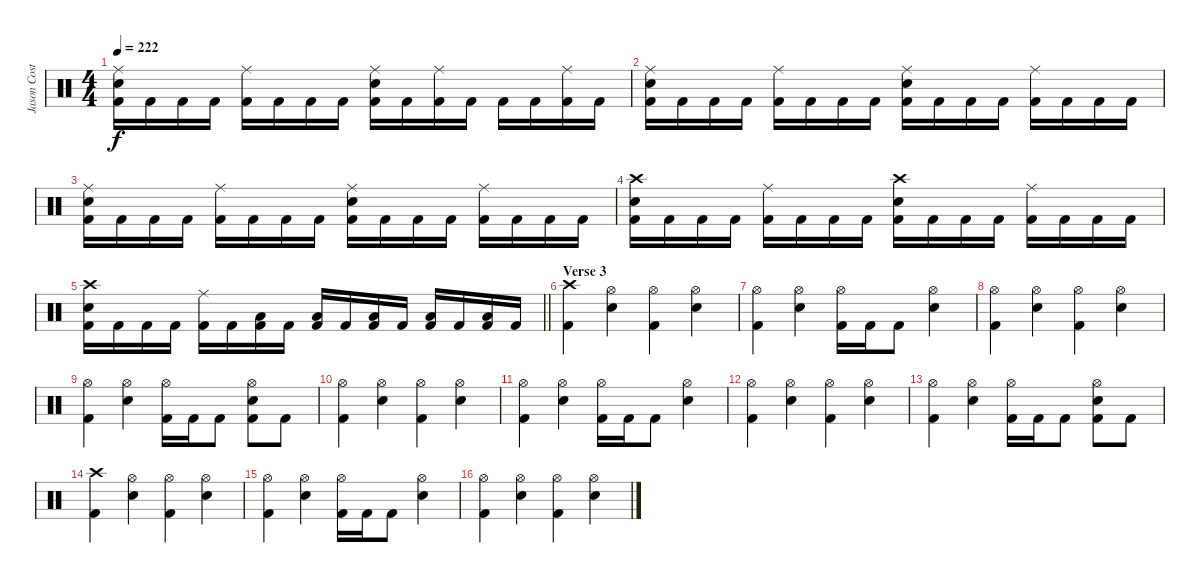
\track ("Jason Costa" "Jason Cost") {instrument percussion}
\staff {score}
\articulation defaults
\ts (4 4)
\tempo 222
\clef neutral
\ks c
("Ride (middle)" "Electric Snare (hit)" "Kick (hit) 2").16{dy f} "Kick (hit) 2".16 "Kick (hit) 2".16 "Kick (hit) 2".16 ("Ride (middle)" "Kick (hit) 2").16 "Kick (hit) 2".16 "Kick (hit) 2".16 "Kick (hit) 2".16 ("Ride (middle)" "Electric Snare (hit)" "Kick (hit) 2").16 "Kick (hit) 2".16 ("Ride (middle)" "Kick (hit) 2").16 "Kick (hit) 2".16 "Kick (hit) 2".16 "Kick (hit) 2".16 ("Ride (middle)" "Kick (hit) 2").16 "Kick (hit) 2".16 |
("Ride (middle)" "Electric Snare (hit)" "Kick (hit) 2").16 "Kick (hit) 2".16 "Kick (hit) 2".16 "Kick (hit) 2".16 ("Ride (middle)" "Kick (hit) 2").16 "Kick (hit) 2".16 "Kick (hit) 2".16 "Kick (hit) 2".16 ("Ride (middle)" "Electric Snare (hit)" "Kick (hit) 2").16 "Kick (hit) 2".16 "Kick (hit) 2".16 "Kick (hit) 2".16 ("Ride (middle)" "Kick (hit) 2").16 "Kick (hit) 2".16 "Kick (hit) 2".16 "Kick (hit) 2".16 |
("Ride (middle)" "Electric Snare (hit)" "Kick (hit) 2").16 "Kick (hit) 2".16 "Kick (hit) 2".16 "Kick (hit) 2".16 ("Ride (middle)" "Kick (hit) 2").16 "Kick (hit) 2".16 "Kick (hit) 2".16 "Kick (hit) 2".16 ("Ride (middle)" "Electric Snare (hit)" "Kick (hit) 2").16 "Kick (hit) 2".16 "Kick (hit) 2".16 "Kick (hit) 2".16 ("Ride (middle)" "Kick (hit) 2").16 "Kick (hit) 2".16 "Kick (hit) 2".16 "Kick (hit) 2".16 |
("Crash high (hit)" "Electric Snare (hit)" "Kick (hit) 2").16 "Kick (hit) 2".16 "Kick (hit) 2".16 "Kick (hit) 2".16 ("Ride (middle)" "Kick (hit) 2").16 "Kick (hit) 2".16 "Kick (hit) 2".16 "Kick (hit) 2".16 ("Crash high (hit)" "Electric Snare (hit)" "Kick (hit) 2").16 "Kick (hit) 2".16 "Kick (hit) 2".16 "Kick (hit) 2".16 ("Ride (middle)" "Kick (hit) 2").16 "Kick (hit) 2".16 "Kick (hit) 2".16 "Kick (hit) 2".16 |
\barLineRight lightlight
("Crash high (hit)" "Electric Snare (hit)" "Kick (hit) 2").16 "Kick (hit) 2".16 "Kick (hit) 2".16 "Kick (hit) 2".16 ("Ride (middle)" "Kick (hit) 2").16 "Kick (hit) 2".16 ("Low Floor Tom (hit)" "Kick (hit) 2").16 "Kick (hit) 2".16 ("Low Floor Tom (hit)" "Kick (hit) 2").16 "Kick (hit) 2".16 ("Low Floor Tom (hit)" "Kick (hit) 2").16 "Kick (hit) 2".16 ("Low Floor Tom (hit)" "Kick (hit) 2").16 "Kick (hit) 2".16 ("Low Floor Tom (hit)" "Kick (hit) 2").16 "Kick (hit) 2".16 |
\section ("" "Verse 3")
("Crash high (hit)" "Kick (hit) 2").4 ("Hi-Hat (open)" "Electric Snare (hit)").4 ("Hi-Hat (open)" "Kick (hit) 2").4 ("Hi-Hat (open)" "Electric Snare (hit)").4 |
("Hi-Hat (open)" "Kick (hit) 2").4 ("Hi-Hat (open)" "Electric Snare (hit)").4 ("Hi-Hat (open)" "Kick (hit) 2").16 "Kick (hit) 2".16 "Kick (hit) 2".8 ("Hi-Hat (open)" "Electric Snare (hit)").4 |
("Hi-Hat (open)" "Kick (hit) 2").4 ("Hi-Hat (open)" "Electric Snare (hit)").4 ("Hi-Hat (open)" "Kick (hit) 2").4 ("Hi-Hat (open)" "Electric Snare (hit)").4 |
("Hi-Hat (open)" "Kick (hit) 2").4 ("Hi-Hat (open)" "Electric Snare (hit)").4 ("Hi-Hat (open)" "Kick (hit) 2").16 "Kick (hit) 2".16 "Kick (hit) 2".8 ("Hi-Hat (open)" "Electric Snare (hit)" "Kick (hit) 2").8 "Kick (hit) 2".8 |
("Hi-Hat (open)" "Kick (hit) 2").4 ("Hi-Hat (open)" "Electric Snare (hit)").4 ("Hi-Hat (open)" "Kick (hit) 2").4 ("Hi-Hat (open)" "Electric Snare (hit)").4 |
("Hi-Hat (open)" "Kick (hit) 2").4 ("Hi-Hat (open)" "Electric Snare (hit)").4 ("Hi-Hat (open)" "Kick (hit) 2").16 "Kick (hit) 2".16 "Kick (hit) 2".8 ("Hi-Hat (open)" "Electric Snare (hit)").4 |
("Hi-Hat (open)" "Kick (hit) 2").4 ("Hi-Hat (open)" "Electric Snare (hit)").4 ("Hi-Hat (open)" "Kick (hit) 2").4 ("Hi-Hat (open)" "Electric Snare (hit)").4 |
("Hi-Hat (open)" "Kick (hit) 2").4 ("Hi-Hat (open)" "Electric Snare (hit)").4 ("Hi-Hat (open)" "Kick (hit) 2").16 "Kick (hit) 2".16 "Kick (hit) 2".8 ("Hi-Hat (open)" "Electric Snare (hit)" "Kick (hit) 2").8 "Kick (hit) 2".8 |
("Crash high (hit)" "Kick (hit) 2").4 ("Hi-Hat (open)" "Electric Snare (hit)").4 ("Hi-Hat (open)" "Kick (hit) 2").4 ("Hi-Hat (open)" "Electric Snare (hit)").4 |
("Hi-Hat (open)" "Kick (hit) 2").4 ("Hi-Hat (open)" "Electric Snare (hit)").4 ("Hi-Hat (open)" "Kick (hit) 2").16 "Kick (hit) 2".16 "Kick (hit) 2".8 ("Hi-Hat (open)" "Electric Snare (hit)").4 |
("Hi-Hat (open)" "Kick (hit) 2").4 ("Hi-Hat (open)" "Electric Snare (hit)").4 ("Hi-Hat (open)" "Kick (hit) 2").4 ("Hi-Hat (open)" "Electric Snare (hit)").4
